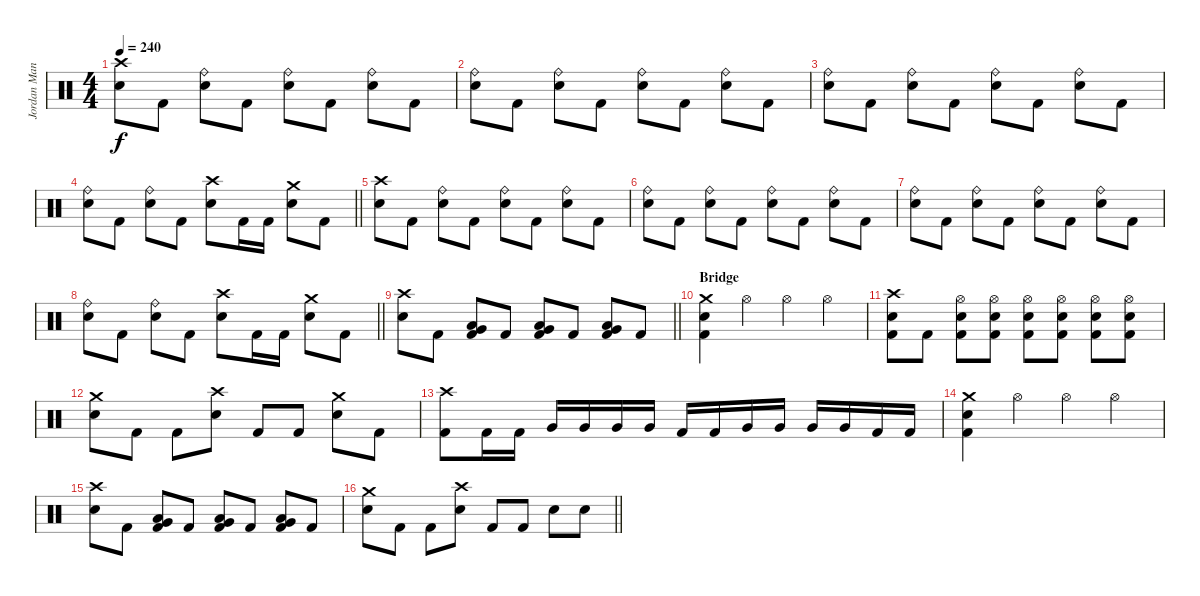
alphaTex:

\track ("Jordan Mancino" "Jordan Man") {instrument percussion}
\staff {score}
\articulation defaults
\ts (4 4)
\tempo 240
\clef neutral
\ks c
("Crash high (hit)" "Electric Snare (hit)").8{dy f} "Kick (hit) 2".8 ("Ride (bell)" "Electric Snare (hit)").8 "Kick (hit) 2".8 ("Ride (bell)" "Electric Snare (hit)").8 "Kick (hit) 2".8 ("Ride (bell)" "Electric Snare (hit)").8 "Kick (hit) 2".8 |
("Ride (bell)" "Electric Snare (hit)").8 "Kick (hit) 2".8 ("Ride (bell)" "Electric Snare (hit)").8 "Kick (hit) 2".8 ("Ride (bell)" "Electric Snare (hit)").8 "Kick (hit) 2".8 ("Ride (bell)" "Electric Snare (hit)").8 "Kick (hit) 2".8 |
("Ride (bell)" "Electric Snare (hit)").8 "Kick (hit) 2".8 ("Ride (bell)" "Electric Snare (hit)").8 "Kick (hit) 2".8 ("Ride (bell)" "Electric Snare (hit)").8 "Kick (hit) 2".8 ("Ride (bell)" "Electric Snare (hit)").8 "Kick (hit) 2".8 |
\barLineRight lightlight
("Ride (bell)" "Electric Snare (hit)").8 "Kick (hit) 2".8 ("Ride (bell)" "Electric Snare (hit)").8 "Kick (hit) 2".8 ("Crash high (hit)" "Electric Snare (hit)").8 "Kick (hit) 2".16 "Kick (hit) 2".16 ("Crash medium (hit)" "Electric Snare (hit)").8 "Kick (hit) 2".8 |
("Crash high (hit)" "Electric Snare (hit)").8 "Kick (hit) 2".8 ("Ride (bell)" "Electric Snare (hit)").8 "Kick (hit) 2".8 ("Ride (bell)" "Electric Snare (hit)").8 "Kick (hit) 2".8 ("Ride (bell)" "Electric Snare (hit)").8 "Kick (hit) 2".8 |
("Ride (bell)" "Electric Snare (hit)").8 "Kick (hit) 2".8 ("Ride (bell)" "Electric Snare (hit)").8 "Kick (hit) 2".8 ("Ride (bell)" "Electric Snare (hit)").8 "Kick (hit) 2".8 ("Ride (bell)" "Electric Snare (hit)").8 "Kick (hit) 2".8 |
("Ride (bell)" "Electric Snare (hit)").8 "Kick (hit) 2".8 ("Ride (bell)" "Electric Snare (hit)").8 "Kick (hit) 2".8 ("Ride (bell)" "Electric Snare (hit)").8 "Kick (hit) 2".8 ("Ride (bell)" "Electric Snare (hit)").8 "Kick (hit) 2".8 |
\barLineRight lightlight
("Ride (bell)" "Electric Snare (hit)").8 "Kick (hit) 2".8 ("Ride (bell)" "Electric Snare (hit)").8 "Kick (hit) 2".8 ("Crash high (hit)" "Electric Snare (hit)").8 "Kick (hit) 2".16 "Kick (hit) 2".16 ("Crash medium (hit)" "Electric Snare (hit)").8 "Kick (hit) 2".8 |
\barLineRight lightlight
("Crash high (hit)" "Electric Snare (hit)").8 "Kick (hit) 2".8 ("Low Tom (hit)" "Very Low Tom (hit)" "Kick (hit) 2").8 "Kick (hit) 2".8 ("Low Tom (hit)" "Very Low Tom (hit)" "Kick (hit) 2").8 "Kick (hit) 2".8 ("Low Tom (hit)" "Very Low Tom (hit)" "Kick (hit) 2").8 "Kick (hit) 2".8 |
\section ("" "Bridge")
("Crash medium (hit)" "Electric Snare (hit)" "Kick (hit) 2").4 "Hi-Hat (open)".4 "Hi-Hat (open)".4 "Hi-Hat (open)".4 |
("Crash high (hit)" "Electric Snare (hit)" "Kick (hit) 2").8 "Kick (hit) 2".8 ("Hi-Hat (open)" "Electric Snare (hit)" "Kick (hit) 2").8 ("Hi-Hat (open)" "Electric Snare (hit)" "Kick (hit) 2").8 ("Hi-Hat (open)" "Electric Snare (hit)" "Kick (hit) 2").8 ("Hi-Hat (open)" "Electric Snare (hit)" "Kick (hit) 2").8 ("Hi-Hat (open)" "Electric Snare (hit)" "Kick (hit) 2").8 ("Hi-Hat (open)" "Electric Snare (hit)" "Kick (hit) 2").8 |
("Crash medium (hit)" "Electric Snare (hit)").8 "Kick (hit) 2".8 "Kick (hit) 2".8 ("Crash high (hit)" "Electric Snare (hit)").8 "Kick (hit) 2".8 "Kick (hit) 2".8 ("Crash medium (hit)" "Electric Snare (hit)").8 "Kick (hit) 2".8 |
("Crash high (hit)" "Kick (hit) 2").8 "Kick (hit) 2".16 "Kick (hit) 2".16 "Very Low Tom (hit)".16 "Very Low Tom (hit)".16 "Very Low Tom (hit)".16 "Very Low Tom (hit)".16 "Kick (hit) 2".16 "Kick (hit) 2".16 "Very Low Tom (hit)".16 "Very Low Tom (hit)".16 "Very Low Tom (hit)".16 "Very Low Tom (hit)".16 "Kick (hit) 2".16 "Kick (hit) 2".16 |
("Crash medium (hit)" "Electric Snare (hit)" "Kick (hit) 2").4 "Hi-Hat (open)".4 "Hi-Hat (open)".4 "Hi-Hat (open)".4 |
("Crash high (hit)" "Electric Snare (hit)").8 "Kick (hit) 2".8 ("Low Tom (hit)" "Very Low Tom (hit)" "Kick (hit) 2").8 "Kick (hit) 2".8 ("Low Tom (hit)" "Very Low Tom (hit)" "Kick (hit) 2").8 "Kick (hit) 2".8 ("Low Tom (hit)" "Very Low Tom (hit)" "Kick (hit) 2").8 "Kick (hit) 2".8 |
\barLineRight lightlight
("Crash medium (hit)" "Electric Snare (hit)").8 "Kick (hit) 2".8 "Kick (hit) 2".8 ("Crash high (hit)" "Electric Snare (hit)").8 "Kick (hit) 2".8 "Kick (hit) 2".8 "Electric Snare (hit)".8 "Electric Snare (hit)".8
